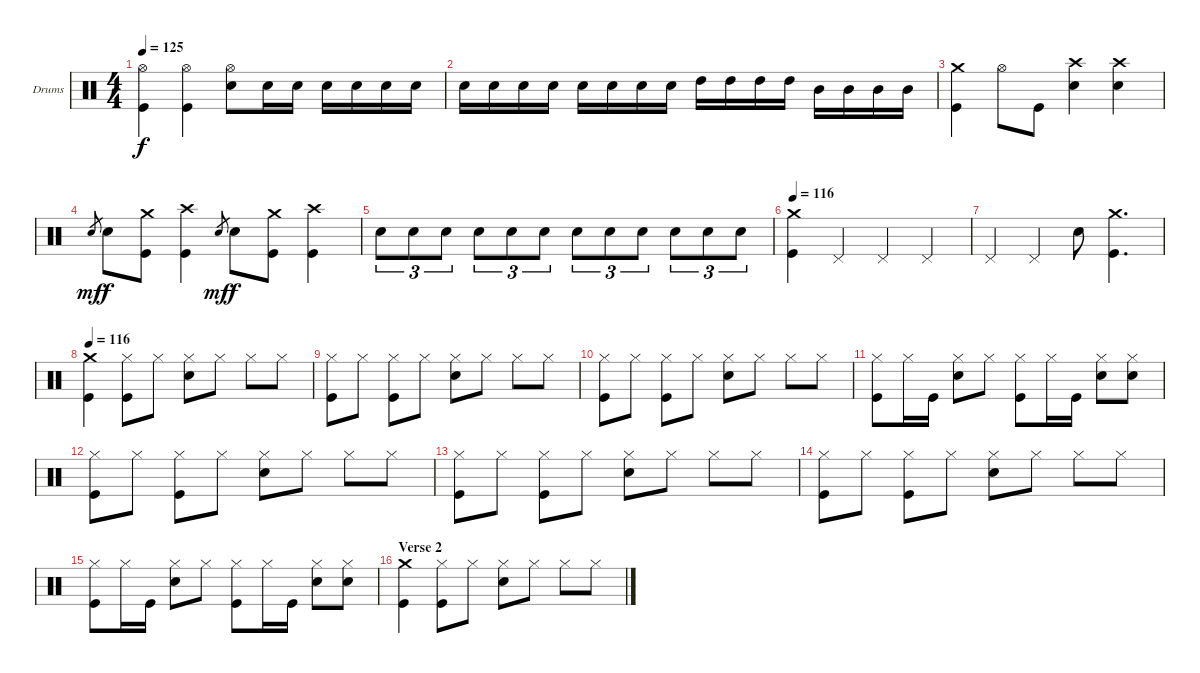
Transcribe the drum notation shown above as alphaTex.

\bracketExtendMode groupsimilarinstruments
\firstSystemTrackNameOrientation horizontal
\otherSystemsTrackNameOrientation horizontal
\track ("Drumkit" "Drums") {instrument percussion}
\staff {score}
\articulation defaults
\ts (4 4)
\tempo 125
\clef neutral
\ks c
("Kick (hit)" "Hi-Hat (open)").4{dy f} ("Kick (hit)" "Hi-Hat (open)").4 ("Snare (hit) 2" "Hi-Hat (open)").8 "Snare (hit) 2".16 "Snare (hit) 2".16 "Snare (hit) 2".16 "Snare (hit) 2".16 "Snare (hit) 2".16 "Snare (hit) 2".16 |
"Snare (hit) 2".16 "Snare (hit) 2".16 "Snare (hit) 2".16 "Snare (hit) 2".16 "Snare (hit) 2".16 "Snare (hit) 2".16 "Snare (hit) 2".16 "Snare (hit) 2".16 "High Tom (hit)".16 "High Tom (hit)".16 "High Tom (hit)".16 "High Tom (hit)".16 "Mid Tom (hit)".16 "Mid Tom (hit)".16 "Mid Tom (hit)".16 "Mid Tom (hit)".16 |
("Kick (hit)" "Crash medium (hit)").4 "Hi-Hat (open)".8 "Kick (hit)".8 ("Snare (hit) 2" "Crash high (hit)").4 ("Snare (hit) 2" "Crash high (hit)").4 |
"Snare (hit) 2".8{gr dy mf} "Snare (hit) 2".8{dy f} ("Kick (hit)" "Crash medium (hit)").8 ("Kick (hit)" "Crash high (hit)").4 "Snare (hit) 2".8{gr dy mf} "Snare (hit) 2".8{dy f} ("Kick (hit)" "Crash medium (hit)").8 ("Kick (hit)" "Crash high (hit)").4 |
"Snare (hit) 2".8{tu (3 2)} "Snare (hit) 2".8{tu (3 2)} "Snare (hit) 2".8{tu (3 2)} "Snare (hit) 2".8{tu (3 2)} "Snare (hit) 2".8{tu (3 2)} "Snare (hit) 2".8{tu (3 2)} "Snare (hit) 2".8{tu (3 2)} "Snare (hit) 2".8{tu (3 2)} "Snare (hit) 2".8{tu (3 2)} "Snare (hit) 2".8{tu (3 2)} "Snare (hit) 2".8{tu (3 2)} "Snare (hit) 2".8{tu (3 2)} |
\tempo 116
("Kick (hit)" "Crash medium (hit)").4 "Pedal Hi-Hat (hit)".4 "Pedal Hi-Hat (hit)".4 "Pedal Hi-Hat (hit)".4 |
"Pedal Hi-Hat (hit)".4 "Pedal Hi-Hat (hit)".4 "Snare (hit) 2".8 ("Kick (hit)" "Crash medium (hit)").4{d} |
\tempo 116
("Kick (hit)" "Crash medium (hit)").4 ("Kick (hit)" "Hi-Hat (closed)").8 "Hi-Hat (closed)".8 ("Snare (hit) 2" "Hi-Hat (closed)").8 "Hi-Hat (closed)".8 "Hi-Hat (closed)".8 "Hi-Hat (closed)".8 |
("Kick (hit)" "Hi-Hat (closed)").8 "Hi-Hat (closed)".8 ("Kick (hit)" "Hi-Hat (closed)").8 "Hi-Hat (closed)".8 ("Snare (hit) 2" "Hi-Hat (closed)").8 "Hi-Hat (closed)".8 "Hi-Hat (closed)".8 "Hi-Hat (closed)".8 |
("Kick (hit)" "Hi-Hat (closed)").8 "Hi-Hat (closed)".8 ("Kick (hit)" "Hi-Hat (closed)").8 "Hi-Hat (closed)".8 ("Snare (hit) 2" "Hi-Hat (closed)").8 "Hi-Hat (closed)".8 "Hi-Hat (closed)".8 "Hi-Hat (closed)".8 |
("Kick (hit)" "Hi-Hat (closed)").8 "Hi-Hat (closed)".16 "Kick (hit)".16 ("Snare (hit) 2" "Hi-Hat (closed)").8 "Hi-Hat (closed)".8 ("Kick (hit)" "Hi-Hat (closed)").8 "Hi-Hat (closed)".16 "Kick (hit)".16 ("Snare (hit) 2" "Hi-Hat (closed)").8 ("Snare (hit) 2" "Hi-Hat (closed)").8 |
("Kick (hit)" "Hi-Hat (closed)").8 "Hi-Hat (closed)".8 ("Kick (hit)" "Hi-Hat (closed)").8 "Hi-Hat (closed)".8 ("Snare (hit) 2" "Hi-Hat (closed)").8 "Hi-Hat (closed)".8 "Hi-Hat (closed)".8 "Hi-Hat (closed)".8 |
("Kick (hit)" "Hi-Hat (closed)").8 "Hi-Hat (closed)".8 ("Kick (hit)" "Hi-Hat (closed)").8 "Hi-Hat (closed)".8 ("Snare (hit) 2" "Hi-Hat (closed)").8 "Hi-Hat (closed)".8 "Hi-Hat (closed)".8 "Hi-Hat (closed)".8 |
("Kick (hit)" "Hi-Hat (closed)").8 "Hi-Hat (closed)".8 ("Kick (hit)" "Hi-Hat (closed)").8 "Hi-Hat (closed)".8 ("Snare (hit) 2" "Hi-Hat (closed)").8 "Hi-Hat (closed)".8 "Hi-Hat (closed)".8 "Hi-Hat (closed)".8 |
("Kick (hit)" "Hi-Hat (closed)").8 "Hi-Hat (closed)".16 "Kick (hit)".16 ("Snare (hit) 2" "Hi-Hat (closed)").8 "Hi-Hat (closed)".8 ("Kick (hit)" "Hi-Hat (closed)").8 "Hi-Hat (closed)".16 "Kick (hit)".16 ("Snare (hit) 2" "Hi-Hat (closed)").8 ("Snare (hit) 2" "Hi-Hat (closed)").8 |
\section ("" "Verse 2")
("Kick (hit)" "Crash medium (hit)").4 ("Kick (hit)" "Hi-Hat (closed)").8 "Hi-Hat (closed)".8 ("Snare (hit) 2" "Hi-Hat (closed)").8 "Hi-Hat (closed)".8 "Hi-Hat (closed)".8 "Hi-Hat (closed)".8
